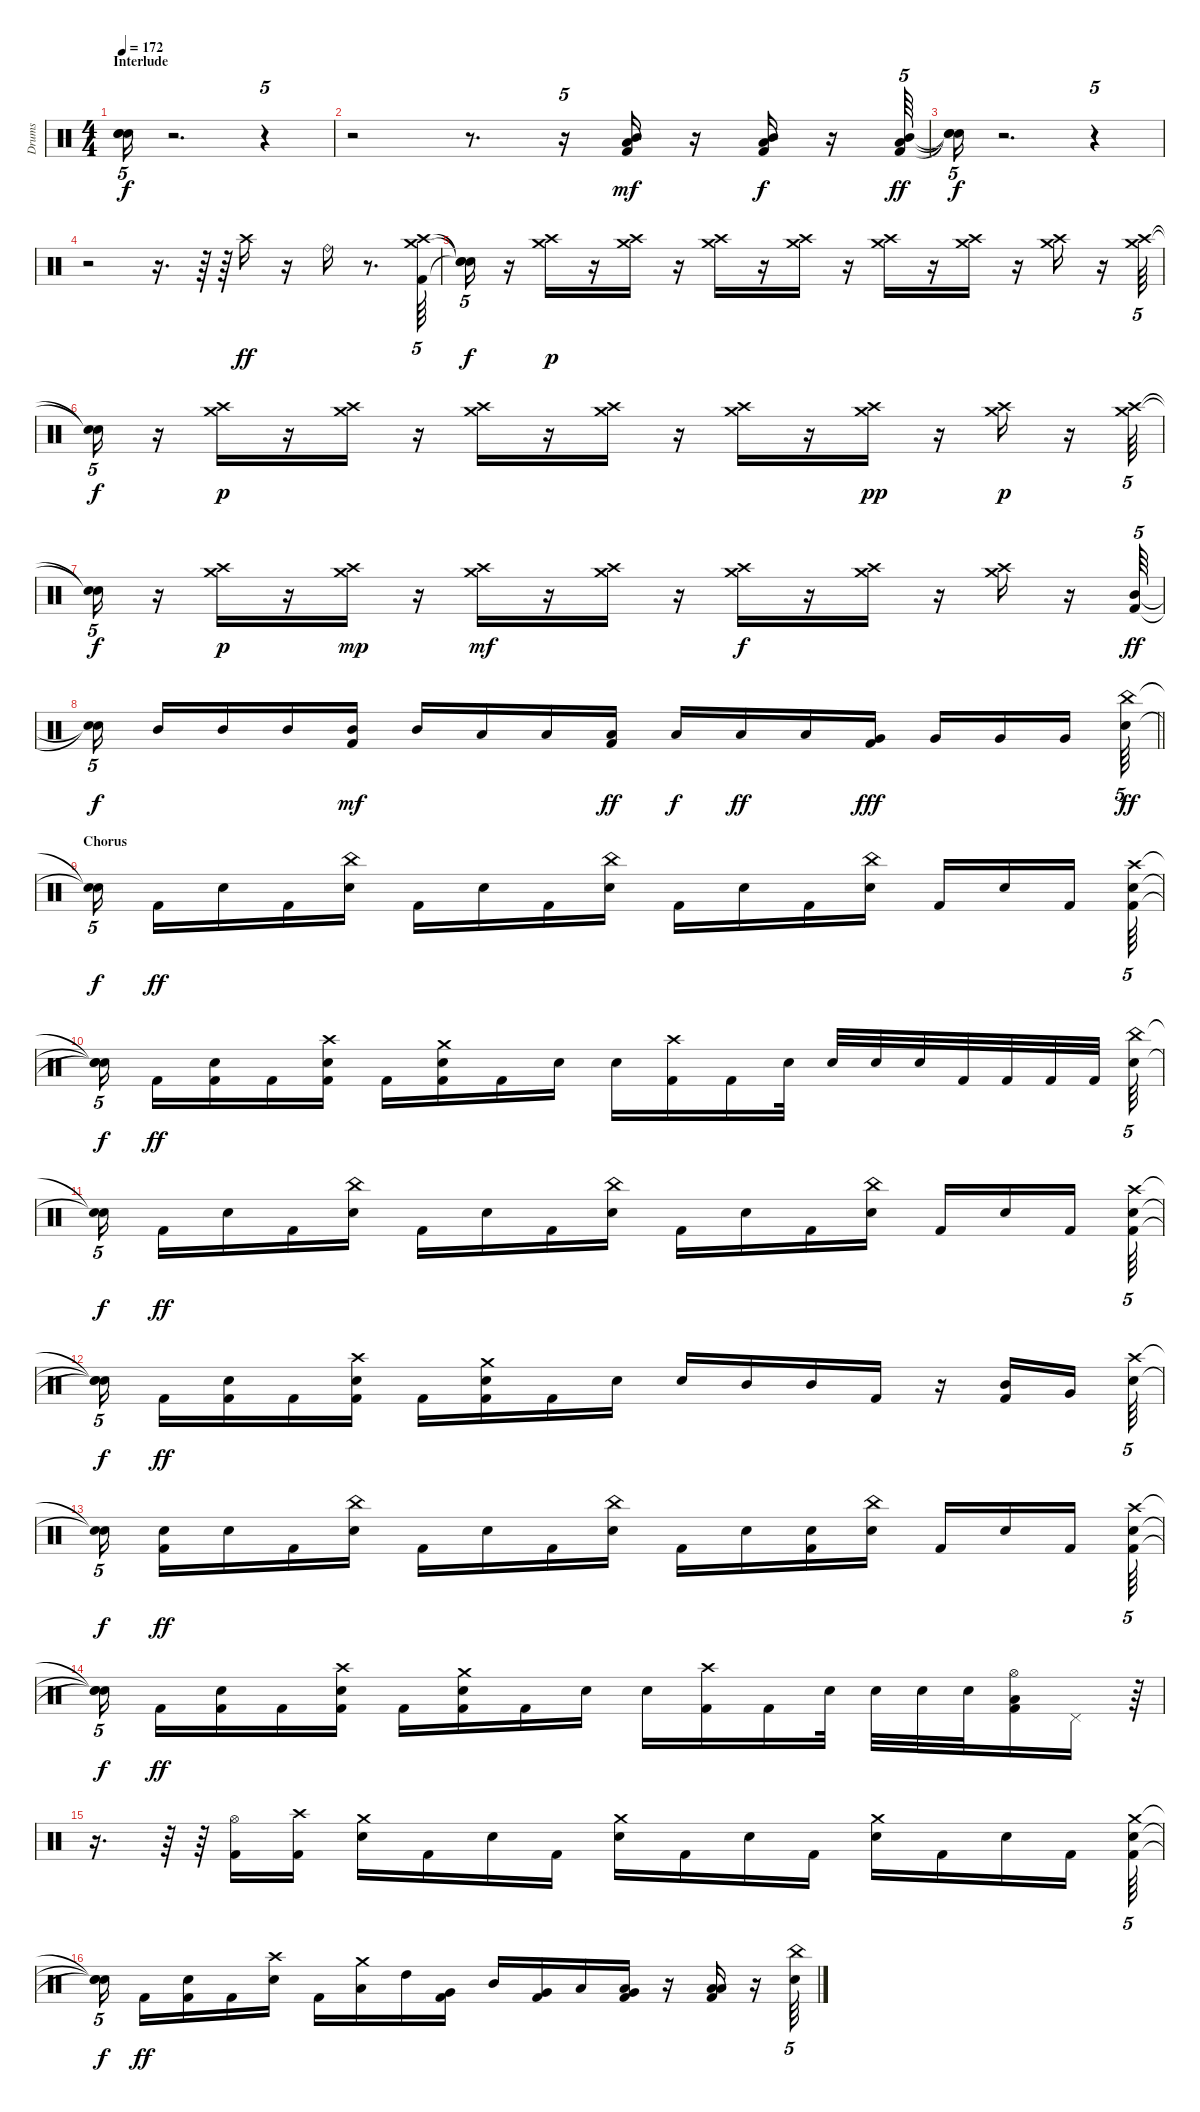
\track ("Drums" "Drums") {instrument percussion}
\staff {score}
\articulation defaults
\ts (4 4)
\section ("" "Interlude")
\tempo 172
\clef neutral
\ks c
("Snare (hit)"{t} "Snare (hit)"{t} "Snare (hit)"{t}).16{tu (5 4) dy f} r.2{d} r.4{tu (5 4)} |
r.2 r.8{d} r.16{tu (5 4)} ("Kick (hit) 2" "Low Tom (hit)" "Mid Tom (hit)").16{dy mf} r.16 ("Kick (hit) 2" "Low Tom (hit)" "Mid Tom (hit)").16{dy f} r.16 ("Kick (hit) 2" "Low Tom (hit)" "Mid Tom (hit)").64{tu (5 4) dy ff} |
("Snare (hit)"{t} "Snare (hit)"{t} "Snare (hit)"{t}).16{tu (5 4) dy f} r.2{d} r.4{tu (5 4)} |
r.2 r.16{d} r.64 r.64 "Crash high (hit)".16{dy ff} r.16 "Ride (bell)".16 r.8{d} ("Crash high (hit)" "Crash medium (hit)" "Kick (hit) 2").64{tu (5 4)} |
("Snare (hit)"{t} "Snare (hit)"{t} "Snare (hit)"{t}).16{tu (5 4) dy f} r.16 ("Crash high (hit)" "Crash medium (hit)").16{dy p} r.16 ("Crash high (hit)" "Crash medium (hit)").16 r.16 ("Crash high (hit)" "Crash medium (hit)").16 r.16 ("Crash high (hit)" "Crash medium (hit)").16 r.16 ("Crash high (hit)" "Crash medium (hit)").16 r.16 ("Crash high (hit)" "Crash medium (hit)").16 r.16 ("Crash high (hit)" "Crash medium (hit)").16 r.16 ("Crash high (hit)" "Crash medium (hit)").64{tu (5 4)} |
("Snare (hit)"{t} "Snare (hit)"{t}).16{tu (5 4) dy f} r.16 ("Crash high (hit)" "Crash medium (hit)").16{dy p} r.16 ("Crash high (hit)" "Crash medium (hit)").16 r.16 ("Crash high (hit)" "Crash medium (hit)").16 r.16 ("Crash high (hit)" "Crash medium (hit)").16 r.16 ("Crash high (hit)" "Crash medium (hit)").16 r.16 ("Crash high (hit)" "Crash medium (hit)").16{dy pp} r.16 ("Crash high (hit)" "Crash medium (hit)").16{dy p} r.16 ("Crash high (hit)" "Crash medium (hit)").64{tu (5 4)} |
("Snare (hit)"{t} "Snare (hit)"{t}).16{tu (5 4) dy f} r.16 ("Crash high (hit)" "Crash medium (hit)").16{dy p} r.16 ("Crash high (hit)" "Crash medium (hit)").16{dy mp} r.16 ("Crash high (hit)" "Crash medium (hit)").16{dy mf} r.16 ("Crash high (hit)" "Crash medium (hit)").16 r.16 ("Crash high (hit)" "Crash medium (hit)").16{dy f} r.16 ("Crash high (hit)" "Crash medium (hit)").16 r.16 ("Crash high (hit)" "Crash medium (hit)").16 r.16 ("Kick (hit) 2" "Mid Tom (hit)").64{tu (5 4) dy ff} |
\barLineRight lightlight
("Snare (hit)"{t} "Snare (hit)"{t}).16{tu (5 4) dy f beam splitsecondary} "Mid Tom (hit)".16 "Mid Tom (hit)".16 "Mid Tom (hit)".16 ("Kick (hit) 2" "Mid Tom (hit)").16{dy mf} "Mid Tom (hit)".16 "Low Tom (hit)".16 "Low Tom (hit)".16 ("Kick (hit) 2" "Low Tom (hit)").16{dy ff} "Low Tom (hit)".16{dy f} "Low Tom (hit)".16{dy ff} "Low Tom (hit)".16 ("Kick (hit) 2" "Very Low Tom (hit)").16{dy fff} "Very Low Tom (hit)".16 "Very Low Tom (hit)".16 "Very Low Tom (hit)".16{beam splitsecondary} ("China (hit)" "Snare (hit) 2").64{tu (5 4) dy ff} |
\section ("" "Chorus")
("Snare (hit)"{t} "Snare (hit)"{t}).16{tu (5 4) dy f beam splitsecondary} "Kick (hit) 2".16{dy ff} "Snare (hit) 2".16 "Kick (hit) 2".16 ("China (hit)" "Snare (hit) 2").16 "Kick (hit) 2".16 "Snare (hit) 2".16 "Kick (hit) 2".16 ("China (hit)" "Snare (hit) 2").16 "Kick (hit) 2".16 "Snare (hit) 2".16 "Kick (hit) 2".16 ("China (hit)" "Snare (hit) 2").16 "Kick (hit) 2".16 "Snare (hit) 2".16 "Kick (hit) 2".16{beam splitsecondary} ("Crash high (hit)" "Kick (hit) 2" "Snare (hit) 2").64{tu (5 4)} |
("Snare (hit)"{t} "Snare (hit)"{t} "Snare (hit)"{t}).16{tu (5 4) dy f beam splitsecondary} "Kick (hit) 2".16{dy ff} ("Kick (hit) 2" "Snare (hit) 2").16 "Kick (hit) 2".16 ("Crash high (hit)" "Kick (hit) 2" "Snare (hit) 2").16 "Kick (hit) 2".16 ("Crash medium (hit)" "Kick (hit) 2" "Snare (hit) 2").16 "Kick (hit) 2".16 "Snare (hit) 2".16 "Snare (hit) 2".16 ("Crash high (hit)" "Kick (hit) 2").16 "Kick (hit) 2".16 "Snare (hit) 2".32 "Snare (hit) 2".32 "Snare (hit) 2".32 "Snare (hit) 2".32 "Kick (hit) 2".32 "Kick (hit) 2".32 "Kick (hit) 2".32 "Kick (hit) 2".32{beam splitsecondary} ("China (hit)" "Snare (hit) 2").64{tu (5 4)} |
("Snare (hit)"{t} "Snare (hit)"{t}).16{tu (5 4) dy f beam splitsecondary} "Kick (hit) 2".16{dy ff} "Snare (hit) 2".16 "Kick (hit) 2".16 ("China (hit)" "Snare (hit) 2").16 "Kick (hit) 2".16 "Snare (hit) 2".16 "Kick (hit) 2".16 ("China (hit)" "Snare (hit) 2").16 "Kick (hit) 2".16 "Snare (hit) 2".16 "Kick (hit) 2".16 ("China (hit)" "Snare (hit) 2").16 "Kick (hit) 2".16 "Snare (hit) 2".16 "Kick (hit) 2".16{beam splitsecondary} ("Crash high (hit)" "Kick (hit) 2" "Snare (hit) 2").64{tu (5 4)} |
("Snare (hit)"{t} "Snare (hit)"{t} "Snare (hit)"{t}).16{tu (5 4) dy f beam splitsecondary} "Kick (hit) 2".16{dy ff} ("Kick (hit) 2" "Snare (hit) 2").16 "Kick (hit) 2".16 ("Crash high (hit)" "Kick (hit) 2" "Snare (hit) 2").16 "Kick (hit) 2".16 ("Crash medium (hit)" "Kick (hit) 2" "Snare (hit) 2").16 "Kick (hit) 2".16 "Snare (hit) 2".16 "Snare (hit) 2".16 "Mid Tom (hit)".16 "Mid Tom (hit)".16 "Kick (hit) 2".16 r.16 ("Kick (hit) 2" "Mid Tom (hit)").16 "Very Low Tom (hit)".16{beam splitsecondary} ("Crash high (hit)" "Snare (hit) 2").64{tu (5 4)} |
("Snare (hit)"{t} "Snare (hit)"{t}).16{tu (5 4) dy f beam splitsecondary} ("Kick (hit) 2" "Snare (hit) 2").16{dy ff} "Snare (hit) 2".16 "Kick (hit) 2".16 ("China (hit)" "Snare (hit) 2").16 "Kick (hit) 2".16 "Snare (hit) 2".16 "Kick (hit) 2".16 ("China (hit)" "Snare (hit) 2").16 "Kick (hit) 2".16 "Snare (hit) 2".16 ("Kick (hit) 2" "Snare (hit) 2").16 ("China (hit)" "Snare (hit) 2").16 "Kick (hit) 2".16 "Snare (hit) 2".16 "Kick (hit) 2".16{beam splitsecondary} ("Crash high (hit)" "Kick (hit) 2" "Snare (hit) 2").64{tu (5 4)} |
("Snare (hit)"{t} "Snare (hit)"{t} "Snare (hit)"{t}).16{tu (5 4) dy f beam splitsecondary} "Kick (hit) 2".16{dy ff} ("Kick (hit) 2" "Snare (hit) 2").16 "Kick (hit) 2".16 ("Crash high (hit)" "Kick (hit) 2" "Snare (hit) 2").16 "Kick (hit) 2".16 ("Crash medium (hit)" "Kick (hit) 2" "Snare (hit) 2").16 "Kick (hit) 2".16 "Snare (hit) 2".16 "Snare (hit) 2".16 ("Crash high (hit)" "Kick (hit) 2").16 "Kick (hit) 2".16 "Snare (hit) 2".32 "Snare (hit) 2".32 "Snare (hit) 2".32 "Snare (hit) 2".32 ("Hi-Hat (open)" "Kick (hit) 2" "Low Tom (hit)").16 "Pedal Hi-Hat (hit)".16 r.64{tu (5 4)} |
r.16{d} r.64 r.64 ("Hi-Hat (open)" "Kick (hit) 2").16 ("Crash high (hit)" "Kick (hit) 2").16 ("Crash medium (hit)" "Snare (hit) 2").16 "Kick (hit) 2".16 "Snare (hit) 2".16 "Kick (hit) 2".16 ("Crash medium (hit)" "Snare (hit) 2").16 "Kick (hit) 2".16 "Snare (hit) 2".16 "Kick (hit) 2".16 ("Crash medium (hit)" "Snare (hit) 2").16 "Kick (hit) 2".16 "Snare (hit) 2".16 "Kick (hit) 2".16 ("Crash medium (hit)" "Kick (hit) 2" "Snare (hit) 2").64{tu (5 4)} |
("Snare (hit)"{t} "Snare (hit)"{t} "Snare (hit)"{t}).16{tu (5 4) dy f beam splitsecondary} "Kick (hit) 2".16{dy ff} ("Kick (hit) 2" "Snare (hit) 2").16 "Kick (hit) 2".16 ("Crash high (hit)" "Snare (hit) 2").16 "Kick (hit) 2".16 ("Crash medium (hit)" "Low Tom (hit)").16 "High Tom (hit)".16 ("Kick (hit) 2" "Very Low Tom (hit)").16 "Mid Tom (hit)".16 ("Kick (hit) 2" "Very Low Tom (hit)").16 "Low Tom (hit)".16 ("Kick (hit) 2" "Low Floor Tom (hit)" "Very Low Tom (hit)").16 r.16 ("Kick (hit) 2" "Low Floor Tom (hit)" "Low Tom (hit)").16 r.16 ("China (hit)" "Snare (hit) 2").64{tu (5 4)}
